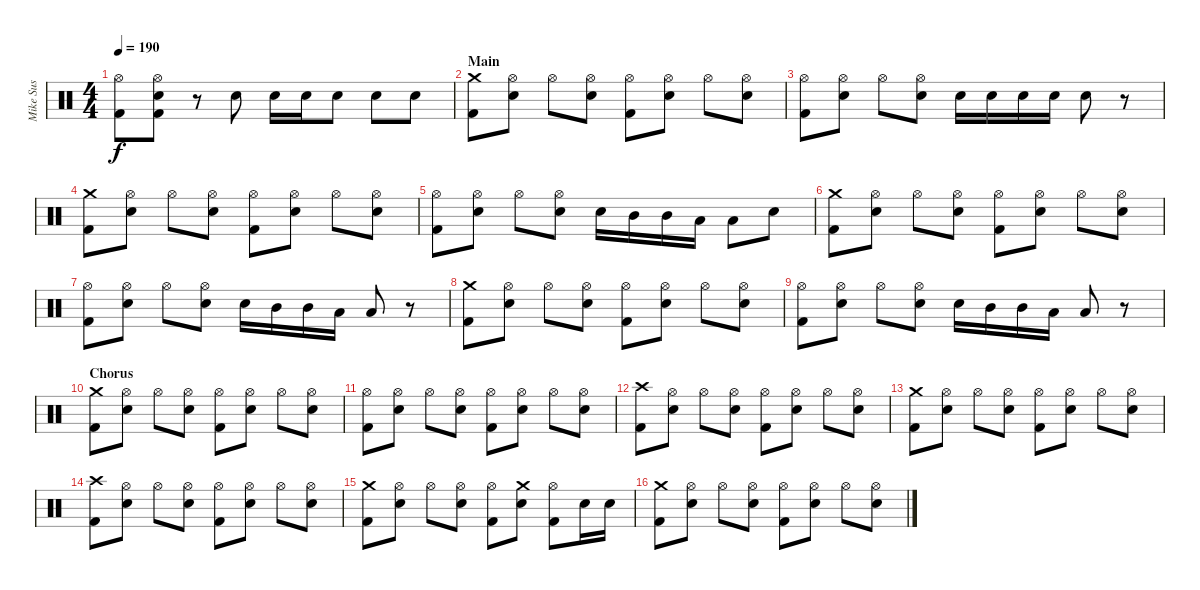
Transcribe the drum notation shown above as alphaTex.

\track ("Mike Sus" "Mike Sus") {instrument percussion}
\staff {score}
\articulation defaults
\ts (4 4)
\tempo 190
\clef neutral
\ks c
("Hi-Hat (open)" "Kick (hit) 2").8{dy f} ("Hi-Hat (open)" "Electric Snare (hit)" "Kick (hit) 2").8 r.8 "Electric Snare (hit)".8 "Electric Snare (hit)".16 "Electric Snare (hit)".16 "Electric Snare (hit)".8 "Electric Snare (hit)".8 "Electric Snare (hit)".8 |
\section ("" "Main")
("Crash medium (hit)" "Kick (hit) 2").8 ("Hi-Hat (open)" "Electric Snare (hit)").8 "Hi-Hat (open)".8 ("Hi-Hat (open)" "Electric Snare (hit)").8 ("Hi-Hat (open)" "Kick (hit) 2").8 ("Hi-Hat (open)" "Electric Snare (hit)").8 "Hi-Hat (open)".8 ("Hi-Hat (open)" "Electric Snare (hit)").8 |
("Hi-Hat (open)" "Kick (hit) 2").8 ("Hi-Hat (open)" "Electric Snare (hit)").8 "Hi-Hat (open)".8 ("Hi-Hat (open)" "Electric Snare (hit)").8 "Electric Snare (hit)".16 "Electric Snare (hit)".16 "Electric Snare (hit)".16 "Electric Snare (hit)".16 "Electric Snare (hit)".8 r.8 |
("Crash medium (hit)" "Kick (hit) 2").8 ("Hi-Hat (open)" "Electric Snare (hit)").8 "Hi-Hat (open)".8 ("Hi-Hat (open)" "Electric Snare (hit)").8 ("Hi-Hat (open)" "Kick (hit) 2").8 ("Hi-Hat (open)" "Electric Snare (hit)").8 "Hi-Hat (open)".8 ("Hi-Hat (open)" "Electric Snare (hit)").8 |
("Hi-Hat (open)" "Kick (hit) 2").8 ("Hi-Hat (open)" "Electric Snare (hit)").8 "Hi-Hat (open)".8 ("Hi-Hat (open)" "Electric Snare (hit)").8 "Electric Snare (hit)".16 "Mid Tom (hit)".16 "Mid Tom (hit)".16 "Low Tom (hit)".16 "Low Tom (hit)".8 "Electric Snare (hit)".8 |
("Crash medium (hit)" "Kick (hit) 2").8 ("Hi-Hat (open)" "Electric Snare (hit)").8 "Hi-Hat (open)".8 ("Hi-Hat (open)" "Electric Snare (hit)").8 ("Hi-Hat (open)" "Kick (hit) 2").8 ("Hi-Hat (open)" "Electric Snare (hit)").8 "Hi-Hat (open)".8 ("Hi-Hat (open)" "Electric Snare (hit)").8 |
("Hi-Hat (open)" "Kick (hit) 2").8 ("Hi-Hat (open)" "Electric Snare (hit)").8 "Hi-Hat (open)".8 ("Hi-Hat (open)" "Electric Snare (hit)").8 "Electric Snare (hit)".16 "Mid Tom (hit)".16 "Mid Tom (hit)".16 "Low Tom (hit)".16 "Low Tom (hit)".8 r.8 |
("Crash medium (hit)" "Kick (hit) 2").8 ("Hi-Hat (open)" "Electric Snare (hit)").8 "Hi-Hat (open)".8 ("Hi-Hat (open)" "Electric Snare (hit)").8 ("Hi-Hat (open)" "Kick (hit) 2").8 ("Hi-Hat (open)" "Electric Snare (hit)").8 "Hi-Hat (open)".8 ("Hi-Hat (open)" "Electric Snare (hit)").8 |
("Hi-Hat (open)" "Kick (hit) 2").8 ("Hi-Hat (open)" "Electric Snare (hit)").8 "Hi-Hat (open)".8 ("Hi-Hat (open)" "Electric Snare (hit)").8 "Electric Snare (hit)".16 "Mid Tom (hit)".16 "Mid Tom (hit)".16 "Low Tom (hit)".16 "Low Tom (hit)".8 r.8 |
\section ("" "Chorus")
("Crash medium (hit)" "Kick (hit) 2").8 ("Hi-Hat (open)" "Electric Snare (hit)").8 "Hi-Hat (open)".8 ("Hi-Hat (open)" "Electric Snare (hit)").8 ("Hi-Hat (open)" "Kick (hit) 2").8 ("Hi-Hat (open)" "Electric Snare (hit)").8 "Hi-Hat (open)".8 ("Hi-Hat (open)" "Electric Snare (hit)").8 |
("Hi-Hat (open)" "Kick (hit) 2").8 ("Hi-Hat (open)" "Electric Snare (hit)").8 "Hi-Hat (open)".8 ("Hi-Hat (open)" "Electric Snare (hit)").8 ("Hi-Hat (open)" "Kick (hit) 2").8 ("Hi-Hat (open)" "Electric Snare (hit)").8 "Hi-Hat (open)".8 ("Hi-Hat (open)" "Electric Snare (hit)").8 |
("Crash high (hit)" "Kick (hit) 2").8 ("Hi-Hat (open)" "Electric Snare (hit)").8 "Hi-Hat (open)".8 ("Hi-Hat (open)" "Electric Snare (hit)").8 ("Hi-Hat (open)" "Kick (hit) 2").8 ("Hi-Hat (open)" "Electric Snare (hit)").8 "Hi-Hat (open)".8 ("Hi-Hat (open)" "Electric Snare (hit)").8 |
("Crash medium (hit)" "Kick (hit) 2").8 ("Hi-Hat (open)" "Electric Snare (hit)").8 "Hi-Hat (open)".8 ("Hi-Hat (open)" "Electric Snare (hit)").8 ("Hi-Hat (open)" "Kick (hit) 2").8 ("Hi-Hat (open)" "Electric Snare (hit)").8 "Hi-Hat (open)".8 ("Hi-Hat (open)" "Electric Snare (hit)").8 |
("Crash high (hit)" "Kick (hit) 2").8 ("Hi-Hat (open)" "Electric Snare (hit)").8 "Hi-Hat (open)".8 ("Hi-Hat (open)" "Electric Snare (hit)").8 ("Hi-Hat (open)" "Kick (hit) 2").8 ("Hi-Hat (open)" "Electric Snare (hit)").8 "Hi-Hat (open)".8 ("Hi-Hat (open)" "Electric Snare (hit)").8 |
("Crash medium (hit)" "Kick (hit) 2").8 ("Hi-Hat (open)" "Electric Snare (hit)").8 "Hi-Hat (open)".8 ("Hi-Hat (open)" "Electric Snare (hit)").8 ("Hi-Hat (open)" "Kick (hit) 2").8 ("Crash medium (hit)" "Electric Snare (hit)").8 ("Hi-Hat (open)" "Kick (hit) 2").8 "Electric Snare (hit)".16 "Electric Snare (hit)".16 |
("Crash medium (hit)" "Kick (hit) 2").8 ("Hi-Hat (open)" "Electric Snare (hit)").8 "Hi-Hat (open)".8 ("Hi-Hat (open)" "Electric Snare (hit)").8 ("Hi-Hat (open)" "Kick (hit) 2").8 ("Hi-Hat (open)" "Electric Snare (hit)").8 "Hi-Hat (open)".8 ("Hi-Hat (open)" "Electric Snare (hit)").8
